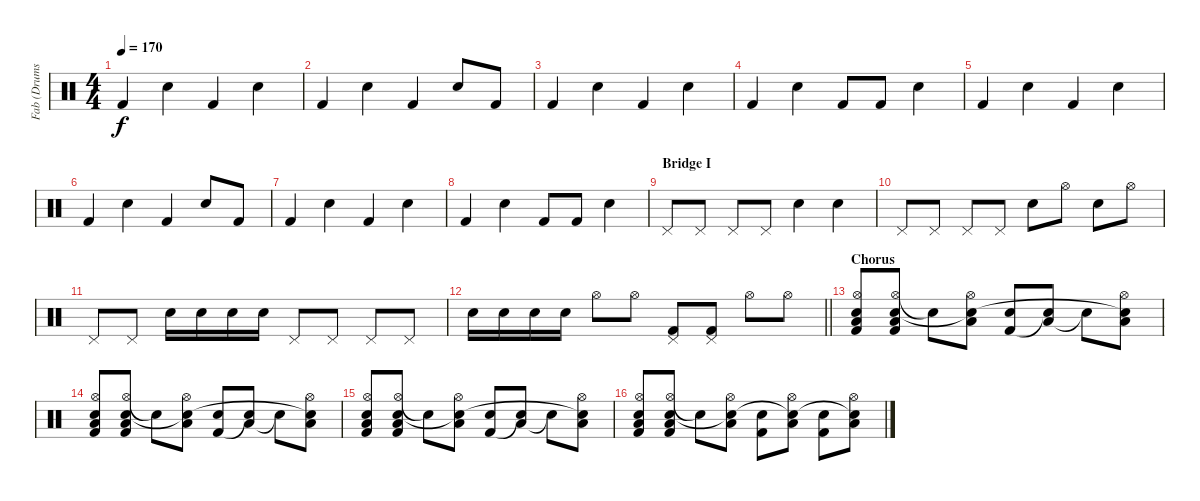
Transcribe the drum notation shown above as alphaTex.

\track ("Fab (Drums)" "Fab (Drums") {instrument percussion}
\staff {score}
\articulation defaults
\ts (4 4)
\tempo 170
\clef neutral
\ks c "Kick (hit) 2".4{dy f} "Electric Snare (hit)".4 "Kick (hit) 2".4 "Electric Snare (hit)".4
|
"Kick (hit) 2".4 "Electric Snare (hit)".4 "Kick (hit) 2".4 "Electric Snare (hit)".8 "Kick (hit) 2".8 |
"Kick (hit) 2".4 "Electric Snare (hit)".4 "Kick (hit) 2".4 "Electric Snare (hit)".4 |
"Kick (hit) 2".4 "Electric Snare (hit)".4 "Kick (hit) 2".8 "Kick (hit) 2".8 "Electric Snare (hit)".4 |
"Kick (hit) 2".4 "Electric Snare (hit)".4 "Kick (hit) 2".4 "Electric Snare (hit)".4 |
"Kick (hit) 2".4 "Electric Snare (hit)".4 "Kick (hit) 2".4 "Electric Snare (hit)".8 "Kick (hit) 2".8 |
"Kick (hit) 2".4 "Electric Snare (hit)".4 "Kick (hit) 2".4 "Electric Snare (hit)".4 |
"Kick (hit) 2".4 "Electric Snare (hit)".4 "Kick (hit) 2".8 "Kick (hit) 2".8 "Electric Snare (hit)".4 |
\section ("" "Bridge I")
"Pedal Hi-Hat (hit)".8 "Pedal Hi-Hat (hit)".8 "Pedal Hi-Hat (hit)".8 "Pedal Hi-Hat (hit)".8 "Electric Snare (hit)".4 "Electric Snare (hit)".4 |
"Pedal Hi-Hat (hit)".8 "Pedal Hi-Hat (hit)".8 "Pedal Hi-Hat (hit)".8 "Pedal Hi-Hat (hit)".8 "Electric Snare (hit)".8 "Hi-Hat (open)".8 "Electric Snare (hit)".8 "Hi-Hat (open)".8 |
"Pedal Hi-Hat (hit)".8 "Pedal Hi-Hat (hit)".8 "Electric Snare (hit)".16 "Electric Snare (hit)".16 "Electric Snare (hit)".16 "Electric Snare (hit)".16 "Pedal Hi-Hat (hit)".8 "Pedal Hi-Hat (hit)".8 "Pedal Hi-Hat (hit)".8 "Pedal Hi-Hat (hit)".8 |
\barLineRight lightlight "Electric Snare (hit)".16 "Electric Snare (hit)".16 "Electric Snare (hit)".16 "Electric Snare (hit)".16 "Hi-Hat (open)".8 "Hi-Hat (open)".8
("Pedal Hi-Hat (hit)" "Kick (hit) 2").8 ("Pedal Hi-Hat (hit)" "Kick (hit) 2").8 "Hi-Hat (open)".8 "Hi-Hat (open)".8 |
\section ("" "Chorus")
("Hi-Hat (open)" "Low Floor Tom (hit)" "Electric Snare (hit)" "Kick (hit) 2").8 ("Hi-Hat (open)" "Low Floor Tom (hit)" "Electric Snare (hit)" "Kick (hit) 2").8 "Snare (hit)"{t}.8 ("Hi-Hat (open)" "Low Floor Tom (hit)" "Snare (hit)"{t}).8 ("Electric Snare (hit)" "Kick (hit) 2").8 ("Low Floor Tom (hit)" "Snare (hit)"{t}).8 "Snare (hit)"{t}.8 ("Hi-Hat (open)" "Low Floor Tom (hit)" "Snare (hit)"{t}).8 |
("Hi-Hat (open)" "Low Floor Tom (hit)" "Electric Snare (hit)" "Kick (hit) 2").8 ("Hi-Hat (open)" "Low Floor Tom (hit)" "Electric Snare (hit)" "Kick (hit) 2").8 "Snare (hit)"{t}.8 ("Hi-Hat (open)" "Low Floor Tom (hit)" "Snare (hit)"{t}).8 ("Electric Snare (hit)" "Kick (hit) 2").8 ("Low Floor Tom (hit)" "Snare (hit)"{t}).8 "Snare (hit)"{t}.8 ("Hi-Hat (open)" "Low Floor Tom (hit)" "Snare (hit)"{t}).8 |
("Hi-Hat (open)" "Low Floor Tom (hit)" "Electric Snare (hit)" "Kick (hit) 2").8 ("Hi-Hat (open)" "Low Floor Tom (hit)" "Electric Snare (hit)" "Kick (hit) 2").8 "Snare (hit)"{t}.8 ("Hi-Hat (open)" "Low Floor Tom (hit)" "Snare (hit)"{t}).8 ("Electric Snare (hit)" "Kick (hit) 2").8 ("Low Floor Tom (hit)" "Snare (hit)"{t}).8 "Snare (hit)"{t}.8 ("Hi-Hat (open)" "Low Floor Tom (hit)" "Snare (hit)"{t}).8 |
("Hi-Hat (open)" "Low Floor Tom (hit)" "Electric Snare (hit)" "Kick (hit) 2").8 ("Hi-Hat (open)" "Low Floor Tom (hit)" "Electric Snare (hit)" "Kick (hit) 2").8 "Snare (hit)"{t}.8 ("Hi-Hat (open)" "Low Floor Tom (hit)" "Snare (hit)"{t}).8 ("Electric Snare (hit)" "Kick (hit) 2").8 ("Hi-Hat (open)" "Low Floor Tom (hit)" "Snare (hit)"{t}).8 ("Electric Snare (hit)" "Kick (hit) 2").8 ("Hi-Hat (open)" "Low Floor Tom (hit)" "Snare (hit)"{t}).8
